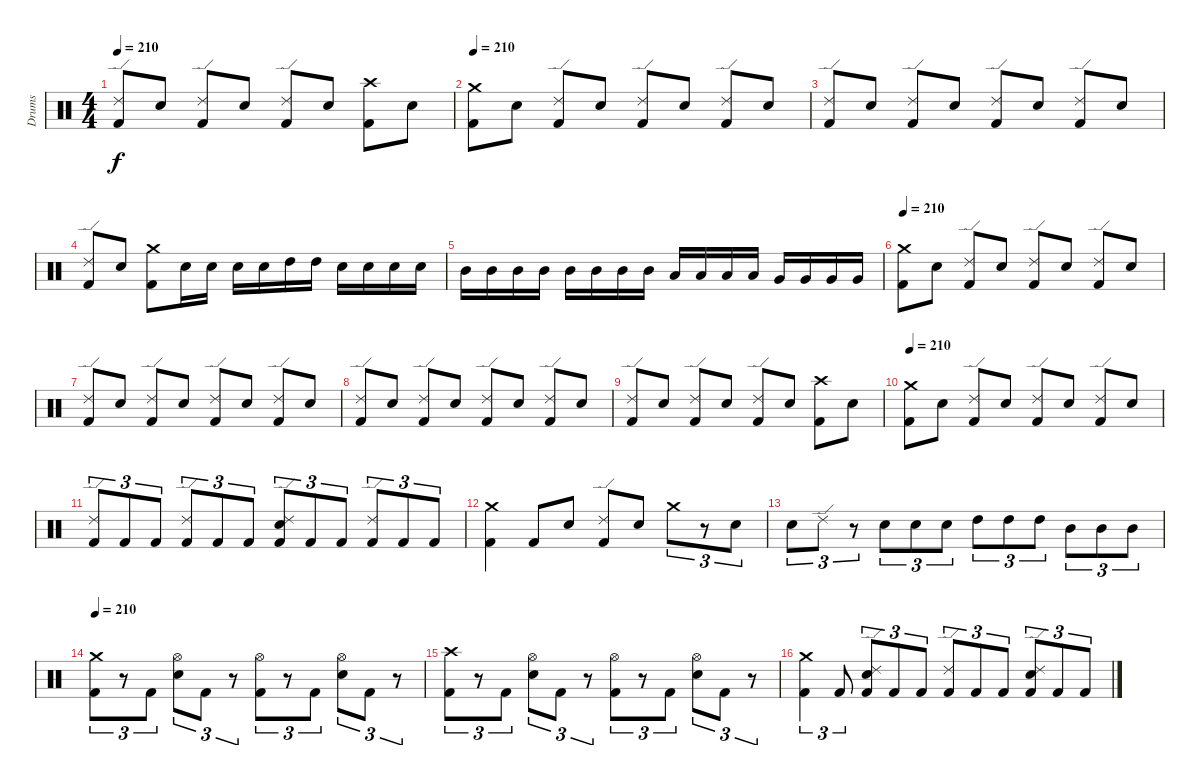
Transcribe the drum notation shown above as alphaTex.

\track ("Drums" "Drums") {instrument percussion}
\staff {score}
\articulation defaults
\ts (4 4)
\tempo 210
\clef neutral
\ks c
("Ride (edge) 2" "Kick (hit) 2").8{dy f} "Electric Snare (hit)".8 ("Ride (edge) 2" "Kick (hit) 2").8 "Electric Snare (hit)".8 ("Ride (edge) 2" "Kick (hit) 2").8 "Electric Snare (hit)".8 ("Crash high (hit)" "Kick (hit) 2").8 "Electric Snare (hit)".8 |
\tempo 210
("Crash medium (hit)" "Kick (hit) 2").8 "Electric Snare (hit)".8 ("Ride (edge) 2" "Kick (hit) 2").8 "Electric Snare (hit)".8 ("Ride (edge) 2" "Kick (hit) 2").8 "Electric Snare (hit)".8 ("Ride (edge) 2" "Kick (hit) 2").8 "Electric Snare (hit)".8 |
("Ride (edge) 2" "Kick (hit) 2").8 "Electric Snare (hit)".8 ("Ride (edge) 2" "Kick (hit) 2").8 "Electric Snare (hit)".8 ("Ride (edge) 2" "Kick (hit) 2").8 "Electric Snare (hit)".8 ("Ride (edge) 2" "Kick (hit) 2").8 "Electric Snare (hit)".8 |
("Ride (edge) 2" "Kick (hit) 2").8 "Electric Snare (hit)".8 ("Crash medium (hit)" "Kick (hit) 2").8 "Electric Snare (hit)".16 "Electric Snare (hit)".16 "Electric Snare (hit)".16 "Electric Snare (hit)".16 "High Tom (hit)".16 "High Tom (hit)".16 "Electric Snare (hit)".16 "Electric Snare (hit)".16 "Electric Snare (hit)".16 "Electric Snare (hit)".16 |
"Mid Tom (hit)".16 "Mid Tom (hit)".16 "Mid Tom (hit)".16 "Mid Tom (hit)".16 "Mid Tom (hit)".16 "Mid Tom (hit)".16 "Mid Tom (hit)".16 "Mid Tom (hit)".16 "Low Tom (hit)".16 "Low Tom (hit)".16 "Low Tom (hit)".16 "Low Tom (hit)".16 "Very Low Tom (hit)".16 "Very Low Tom (hit)".16 "Very Low Tom (hit)".16 "Very Low Tom (hit)".16 |
\tempo 210
("Crash medium (hit)" "Kick (hit) 2").8 "Electric Snare (hit)".8 ("Ride (edge) 2" "Kick (hit) 2").8 "Electric Snare (hit)".8 ("Ride (edge) 2" "Kick (hit) 2").8 "Electric Snare (hit)".8 ("Ride (edge) 2" "Kick (hit) 2").8 "Electric Snare (hit)".8 |
("Ride (edge) 2" "Kick (hit) 2").8 "Electric Snare (hit)".8 ("Ride (edge) 2" "Kick (hit) 2").8 "Electric Snare (hit)".8 ("Ride (edge) 2" "Kick (hit) 2").8 "Electric Snare (hit)".8 ("Ride (edge) 2" "Kick (hit) 2").8 "Electric Snare (hit)".8 |
("Ride (edge) 2" "Kick (hit) 2").8 "Electric Snare (hit)".8 ("Ride (edge) 2" "Kick (hit) 2").8 "Electric Snare (hit)".8 ("Ride (edge) 2" "Kick (hit) 2").8 "Electric Snare (hit)".8 ("Ride (edge) 2" "Kick (hit) 2").8 "Electric Snare (hit)".8 |
("Ride (edge) 2" "Kick (hit) 2").8 "Electric Snare (hit)".8 ("Ride (edge) 2" "Kick (hit) 2").8 "Electric Snare (hit)".8 ("Ride (edge) 2" "Kick (hit) 2").8 "Electric Snare (hit)".8 ("Crash high (hit)" "Kick (hit) 2").8 "Electric Snare (hit)".8 |
\tempo 210
("Crash medium (hit)" "Kick (hit) 2").8 "Electric Snare (hit)".8 ("Ride (edge) 2" "Kick (hit) 2").8 "Electric Snare (hit)".8 ("Ride (edge) 2" "Kick (hit) 2").8 "Electric Snare (hit)".8 ("Ride (edge) 2" "Kick (hit) 2").8 "Electric Snare (hit)".8 |
("Ride (edge) 2" "Kick (hit) 2").8{tu (3 2)} "Kick (hit) 2".8{tu (3 2)} "Kick (hit) 2".8{tu (3 2)} ("Ride (edge) 2" "Kick (hit) 2").8{tu (3 2)} "Kick (hit) 2".8{tu (3 2)} "Kick (hit) 2".8{tu (3 2)} ("Ride (edge) 2" "Electric Snare (hit)" "Kick (hit) 2").8{tu (3 2)} "Kick (hit) 2".8{tu (3 2)} "Kick (hit) 2".8{tu (3 2)} ("Ride (edge) 2" "Kick (hit) 2").8{tu (3 2)} "Kick (hit) 2".8{tu (3 2)} "Kick (hit) 2".8{tu (3 2)} |
("Crash medium (hit)" "Kick (hit) 2").4 "Kick (hit) 2".8 "Electric Snare (hit)".8 ("Ride (edge) 2" "Kick (hit) 2").8 "Electric Snare (hit)".8 "Crash medium (hit)".8{tu (3 2)} r.8{tu (3 2)} "Electric Snare (hit)".8{tu (3 2)} |
"Electric Snare (hit)".8{tu (3 2)} "Ride (edge) 2".8{tu (3 2)} r.8{tu (3 2)} "Electric Snare (hit)".8{tu (3 2)} "Electric Snare (hit)".8{tu (3 2)} "Electric Snare (hit)".8{tu (3 2)} "High Tom (hit)".8{tu (3 2)} "High Tom (hit)".8{tu (3 2)} "High Tom (hit)".8{tu (3 2)} "Mid Tom (hit)".8{tu (3 2)} "Mid Tom (hit)".8{tu (3 2)} "Mid Tom (hit)".8{tu (3 2)} |
\tempo 210
("Crash medium (hit)" "Kick (hit) 2").8{tu (3 2)} r.8{tu (3 2)} "Kick (hit) 2".8{tu (3 2)} ("Hi-Hat (open)" "Electric Snare (hit)").8{tu (3 2)} "Kick (hit) 2".8{tu (3 2)} r.8{tu (3 2)} ("Hi-Hat (open)" "Kick (hit) 2").8{tu (3 2)} r.8{tu (3 2)} "Kick (hit) 2".8{tu (3 2)} ("Hi-Hat (open)" "Electric Snare (hit)").8{tu (3 2)} "Kick (hit) 2".8{tu (3 2)} r.8{tu (3 2)} |
("Crash high (hit)" "Kick (hit) 2").8{tu (3 2)} r.8{tu (3 2)} "Kick (hit) 2".8{tu (3 2)} ("Hi-Hat (open)" "Electric Snare (hit)").8{tu (3 2)} "Kick (hit) 2".8{tu (3 2)} r.8{tu (3 2)} ("Hi-Hat (open)" "Kick (hit) 2").8{tu (3 2)} r.8{tu (3 2)} "Kick (hit) 2".8{tu (3 2)} ("Hi-Hat (open)" "Electric Snare (hit)").8{tu (3 2)} "Kick (hit) 2".8{tu (3 2)} r.8{tu (3 2)} |
("Crash medium (hit)" "Kick (hit) 2").4{tu (3 2)} "Kick (hit) 2".8{tu (3 2)} ("Ride (edge) 2" "Electric Snare (hit)" "Kick (hit) 2").8{tu (3 2)} "Kick (hit) 2".8{tu (3 2)} "Kick (hit) 2".8{tu (3 2)} ("Ride (edge) 2" "Kick (hit) 2").8{tu (3 2)} "Kick (hit) 2".8{tu (3 2)} "Kick (hit) 2".8{tu (3 2)} ("Ride (edge) 2" "Electric Snare (hit)" "Kick (hit) 2").8{tu (3 2)} "Kick (hit) 2".8{tu (3 2)} "Kick (hit) 2".8{tu (3 2)}
